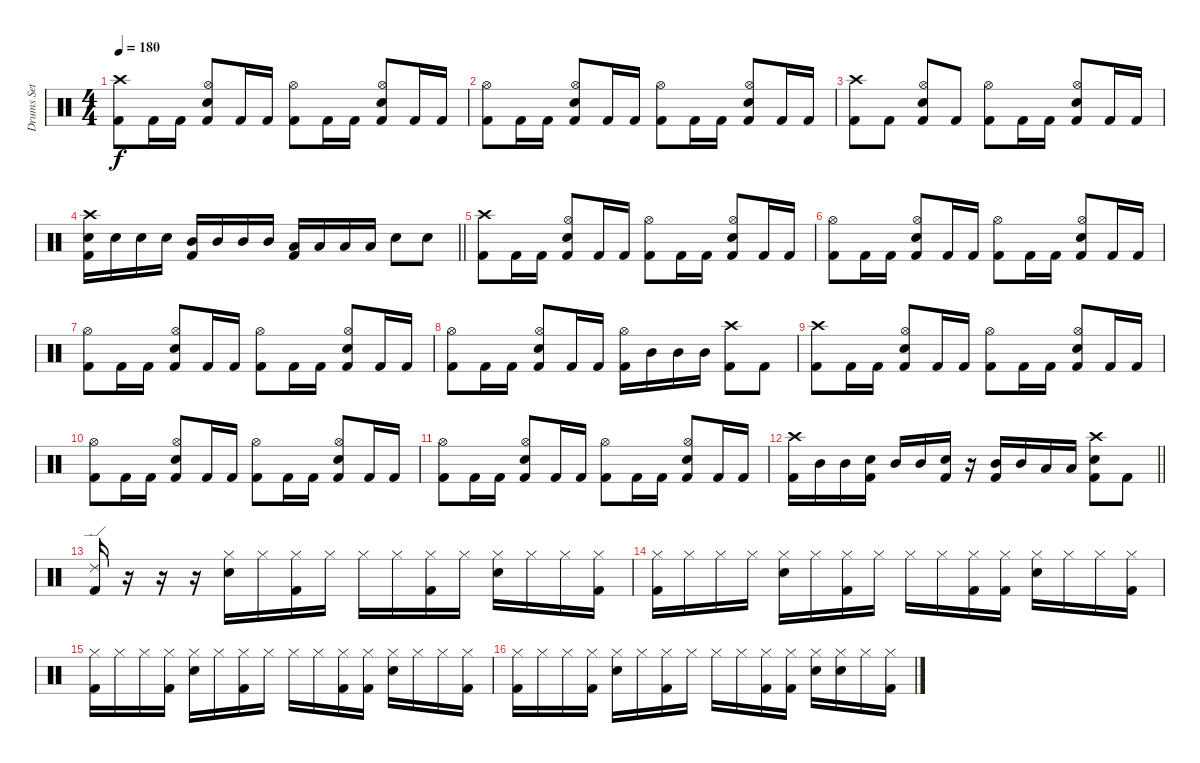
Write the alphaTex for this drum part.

\track ("Drums Set" "Drums Set") {instrument percussion}
\staff {score}
\articulation defaults
\ts (4 4)
\tempo 180
\clef neutral
\ks c
("Crash high (hit)" "Kick (hit) 2").8{dy f} "Kick (hit) 2".16 "Kick (hit) 2".16 ("Hi-Hat (open)" "Snare (hit) 2" "Kick (hit) 2").8 "Kick (hit) 2".16 "Kick (hit) 2".16 ("Hi-Hat (open)" "Kick (hit) 2").8 "Kick (hit) 2".16 "Kick (hit) 2".16 ("Hi-Hat (open)" "Snare (hit) 2" "Kick (hit) 2").8 "Kick (hit) 2".16 "Kick (hit) 2".16 |
("Hi-Hat (open)" "Kick (hit) 2").8 "Kick (hit) 2".16 "Kick (hit) 2".16 ("Hi-Hat (open)" "Snare (hit) 2" "Kick (hit) 2").8 "Kick (hit) 2".16 "Kick (hit) 2".16 ("Hi-Hat (open)" "Kick (hit) 2").8 "Kick (hit) 2".16 "Kick (hit) 2".16 ("Hi-Hat (open)" "Snare (hit) 2" "Kick (hit) 2").8 "Kick (hit) 2".16 "Kick (hit) 2".16 |
("Crash high (hit)" "Kick (hit) 2").8 "Kick (hit) 2".8 ("Hi-Hat (open)" "Snare (hit) 2" "Kick (hit) 2").8 "Kick (hit) 2".8 ("Hi-Hat (open)" "Kick (hit) 2").8 "Kick (hit) 2".16 "Kick (hit) 2".16 ("Hi-Hat (open)" "Snare (hit) 2" "Kick (hit) 2").8 "Kick (hit) 2".16 "Kick (hit) 2".16 |
\barLineRight lightlight
("Crash high (hit)" "Snare (hit) 2" "Kick (hit) 2").16 "Snare (hit) 2".16 "Snare (hit) 2".16 "Snare (hit) 2".16 ("Mid Tom (hit)" "Kick (hit) 2").16 "Mid Tom (hit)".16 "Mid Tom (hit)".16 "Mid Tom (hit)".16 ("Low Tom (hit)" "Kick (hit) 2").16 "Low Tom (hit)".16 "Low Tom (hit)".16 "Low Tom (hit)".16 "Snare (hit) 2".8 "Snare (hit) 2".8 |
("Crash high (hit)" "Kick (hit) 2").8 "Kick (hit) 2".16 "Kick (hit) 2".16 ("Hi-Hat (open)" "Snare (hit) 2" "Kick (hit) 2").8 "Kick (hit) 2".16 "Kick (hit) 2".16 ("Hi-Hat (open)" "Kick (hit) 2").8 "Kick (hit) 2".16 "Kick (hit) 2".16 ("Hi-Hat (open)" "Snare (hit) 2" "Kick (hit) 2").8 "Kick (hit) 2".16 "Kick (hit) 2".16 |
("Hi-Hat (open)" "Kick (hit) 2").8 "Kick (hit) 2".16 "Kick (hit) 2".16 ("Hi-Hat (open)" "Snare (hit) 2" "Kick (hit) 2").8 "Kick (hit) 2".16 "Kick (hit) 2".16 ("Hi-Hat (open)" "Kick (hit) 2").8 "Kick (hit) 2".16 "Kick (hit) 2".16 ("Hi-Hat (open)" "Snare (hit) 2" "Kick (hit) 2").8 "Kick (hit) 2".16 "Kick (hit) 2".16 |
("Hi-Hat (open)" "Kick (hit) 2").8 "Kick (hit) 2".16 "Kick (hit) 2".16 ("Hi-Hat (open)" "Snare (hit) 2" "Kick (hit) 2").8 "Kick (hit) 2".16 "Kick (hit) 2".16 ("Hi-Hat (open)" "Kick (hit) 2").8 "Kick (hit) 2".16 "Kick (hit) 2".16 ("Hi-Hat (open)" "Snare (hit) 2" "Kick (hit) 2").8 "Kick (hit) 2".16 "Kick (hit) 2".16 |
("Hi-Hat (open)" "Kick (hit) 2").8 "Kick (hit) 2".16 "Kick (hit) 2".16 ("Hi-Hat (open)" "Snare (hit) 2" "Kick (hit) 2").8 "Kick (hit) 2".16 "Kick (hit) 2".16 ("Hi-Hat (open)" "Kick (hit) 2").16 "Mid Tom (hit)".16 "Mid Tom (hit)".16 "Mid Tom (hit)".16 ("Crash high (hit)" "Kick (hit) 2").8 "Kick (hit) 2".8 |
("Crash high (hit)" "Kick (hit) 2").8 "Kick (hit) 2".16 "Kick (hit) 2".16 ("Hi-Hat (open)" "Snare (hit) 2" "Kick (hit) 2").8 "Kick (hit) 2".16 "Kick (hit) 2".16 ("Hi-Hat (open)" "Kick (hit) 2").8 "Kick (hit) 2".16 "Kick (hit) 2".16 ("Hi-Hat (open)" "Snare (hit) 2" "Kick (hit) 2").8 "Kick (hit) 2".16 "Kick (hit) 2".16 |
("Hi-Hat (open)" "Kick (hit) 2").8 "Kick (hit) 2".16 "Kick (hit) 2".16 ("Hi-Hat (open)" "Snare (hit) 2" "Kick (hit) 2").8 "Kick (hit) 2".16 "Kick (hit) 2".16 ("Hi-Hat (open)" "Kick (hit) 2").8 "Kick (hit) 2".16 "Kick (hit) 2".16 ("Hi-Hat (open)" "Snare (hit) 2" "Kick (hit) 2").8 "Kick (hit) 2".16 "Kick (hit) 2".16 |
("Hi-Hat (open)" "Kick (hit) 2").8 "Kick (hit) 2".16 "Kick (hit) 2".16 ("Hi-Hat (open)" "Snare (hit) 2" "Kick (hit) 2").8 "Kick (hit) 2".16 "Kick (hit) 2".16 ("Hi-Hat (open)" "Kick (hit) 2").8 "Kick (hit) 2".16 "Kick (hit) 2".16 ("Hi-Hat (open)" "Snare (hit) 2" "Kick (hit) 2").8 "Kick (hit) 2".16 "Kick (hit) 2".16 |
\barLineRight lightlight
("Crash high (hit)" "Kick (hit) 2").16 "Mid Tom (hit)".16 "Mid Tom (hit)".16 ("Snare (hit) 2" "Kick (hit) 2").16 "Mid Tom (hit)".16 "Mid Tom (hit)".16 ("Snare (hit) 2" "Kick (hit) 2").16 r.16 ("Mid Tom (hit)" "Kick (hit) 2").16 "Mid Tom (hit)".16 "Low Tom (hit)".16 "Low Tom (hit)".16 ("Crash high (hit)" "Snare (hit) 2" "Kick (hit) 2").8 "Kick (hit) 2".8 |
("Ride (edge) 2" "Kick (hit) 2").16 r.16 r.16 r.16 ("Hi-Hat (closed)" "Snare (hit) 2").16 "Hi-Hat (closed)".16 ("Hi-Hat (closed)" "Kick (hit) 2").16 "Hi-Hat (closed)".16 "Hi-Hat (closed)".16 "Hi-Hat (closed)".16 ("Hi-Hat (closed)" "Kick (hit) 2").16 "Hi-Hat (closed)".16 ("Hi-Hat (closed)" "Snare (hit) 2").16 "Hi-Hat (closed)".16 "Hi-Hat (closed)".16 ("Hi-Hat (closed)" "Kick (hit) 2").16 |
("Hi-Hat (closed)" "Kick (hit) 2").16 "Hi-Hat (closed)".16 "Hi-Hat (closed)".16 "Hi-Hat (closed)".16 ("Hi-Hat (closed)" "Snare (hit) 2").16 "Hi-Hat (closed)".16 ("Hi-Hat (closed)" "Kick (hit) 2").16 "Hi-Hat (closed)".16 "Hi-Hat (closed)".16 "Hi-Hat (closed)".16 ("Hi-Hat (closed)" "Kick (hit) 2").16 ("Hi-Hat (closed)" "Kick (hit) 2").16 ("Hi-Hat (closed)" "Snare (hit) 2").16 "Hi-Hat (closed)".16 "Hi-Hat (closed)".16 ("Hi-Hat (closed)" "Kick (hit) 2").16 |
("Hi-Hat (closed)" "Kick (hit) 2").16 "Hi-Hat (closed)".16 "Hi-Hat (closed)".16 ("Hi-Hat (closed)" "Kick (hit) 2").16 ("Hi-Hat (closed)" "Snare (hit) 2").16 "Hi-Hat (closed)".16 ("Hi-Hat (closed)" "Kick (hit) 2").16 "Hi-Hat (closed)".16 "Hi-Hat (closed)".16 "Hi-Hat (closed)".16 ("Hi-Hat (closed)" "Kick (hit) 2").16 ("Hi-Hat (closed)" "Kick (hit) 2").16 ("Hi-Hat (closed)" "Snare (hit) 2").16 "Hi-Hat (closed)".16 "Hi-Hat (closed)".16 ("Hi-Hat (closed)" "Kick (hit) 2").16 |
("Hi-Hat (closed)" "Kick (hit) 2").16 "Hi-Hat (closed)".16 "Hi-Hat (closed)".16 ("Hi-Hat (closed)" "Kick (hit) 2").16 ("Hi-Hat (closed)" "Snare (hit) 2").16 "Hi-Hat (closed)".16 ("Hi-Hat (closed)" "Kick (hit) 2").16 "Hi-Hat (closed)".16 "Hi-Hat (closed)".16 "Hi-Hat (closed)".16 ("Hi-Hat (closed)" "Kick (hit) 2").16 ("Hi-Hat (closed)" "Kick (hit) 2").16 ("Hi-Hat (closed)" "Snare (hit) 2").16 ("Hi-Hat (closed)" "Snare (hit) 2").16 "Hi-Hat (closed)".16 ("Hi-Hat (closed)" "Kick (hit) 2").16
